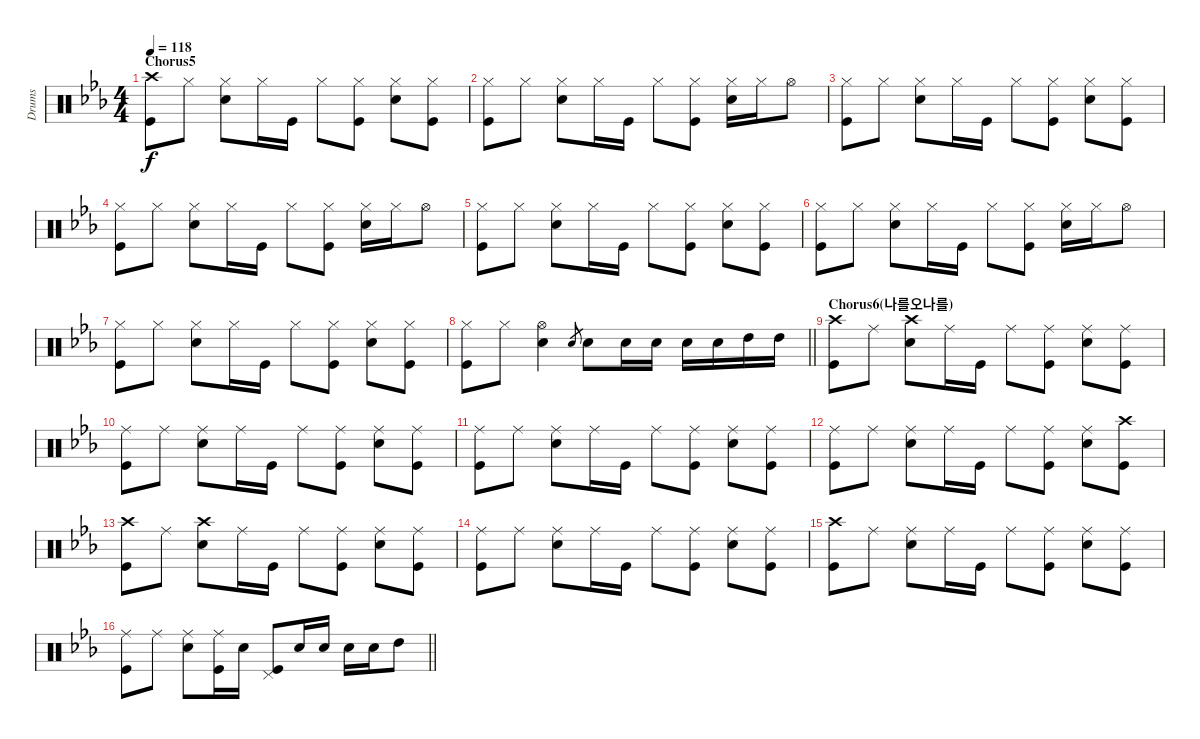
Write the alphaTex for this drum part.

\track ("Drums" "Drums") {instrument percussion}
\staff {score}
\articulation defaults
\ts (4 4)
\section ("" "Chorus5")
\tempo 118
\clef neutral
\ks cminor
("Crash high (hit)" "Kick (hit)").8{dy f} "Hi-Hat (closed)".8 ("Hi-Hat (closed)" "Snare (hit) 2").8 "Hi-Hat (closed)".16 "Kick (hit)".16 "Hi-Hat (closed)".8 ("Hi-Hat (closed)" "Kick (hit)").8 ("Hi-Hat (closed)" "Snare (hit) 2").8 ("Hi-Hat (closed)" "Kick (hit)").8 |
("Hi-Hat (closed)" "Kick (hit)").8 "Hi-Hat (closed)".8 ("Hi-Hat (closed)" "Snare (hit) 2").8 "Hi-Hat (closed)".16 "Kick (hit)".16 "Hi-Hat (closed)".8 ("Hi-Hat (closed)" "Kick (hit)").8 ("Hi-Hat (closed)" "Snare (hit) 2").16 "Hi-Hat (closed)".16 "Hi-Hat (open)".8 |
("Hi-Hat (closed)" "Kick (hit)").8 "Hi-Hat (closed)".8 ("Hi-Hat (closed)" "Snare (hit) 2").8 "Hi-Hat (closed)".16 "Kick (hit)".16 "Hi-Hat (closed)".8 ("Hi-Hat (closed)" "Kick (hit)").8 ("Hi-Hat (closed)" "Snare (hit) 2").8 ("Hi-Hat (closed)" "Kick (hit)").8 |
("Hi-Hat (closed)" "Kick (hit)").8 "Hi-Hat (closed)".8 ("Hi-Hat (closed)" "Snare (hit) 2").8 "Hi-Hat (closed)".16 "Kick (hit)".16 "Hi-Hat (closed)".8 ("Hi-Hat (closed)" "Kick (hit)").8 ("Hi-Hat (closed)" "Snare (hit) 2").16 "Hi-Hat (closed)".16 "Hi-Hat (open)".8 |
("Hi-Hat (closed)" "Kick (hit)").8 "Hi-Hat (closed)".8 ("Hi-Hat (closed)" "Snare (hit) 2").8 "Hi-Hat (closed)".16 "Kick (hit)".16 "Hi-Hat (closed)".8 ("Hi-Hat (closed)" "Kick (hit)").8 ("Hi-Hat (closed)" "Snare (hit) 2").8 ("Hi-Hat (closed)" "Kick (hit)").8 |
("Hi-Hat (closed)" "Kick (hit)").8 "Hi-Hat (closed)".8 ("Hi-Hat (closed)" "Snare (hit) 2").8 "Hi-Hat (closed)".16 "Kick (hit)".16 "Hi-Hat (closed)".8 ("Hi-Hat (closed)" "Kick (hit)").8 ("Hi-Hat (closed)" "Snare (hit) 2").16 "Hi-Hat (closed)".16 "Hi-Hat (open)".8 |
("Hi-Hat (closed)" "Kick (hit)").8 "Hi-Hat (closed)".8 ("Hi-Hat (closed)" "Snare (hit) 2").8 "Hi-Hat (closed)".16 "Kick (hit)".16 "Hi-Hat (closed)".8 ("Hi-Hat (closed)" "Kick (hit)").8 ("Hi-Hat (closed)" "Snare (hit) 2").8 ("Hi-Hat (closed)" "Kick (hit)").8 |
\barLineRight lightlight
("Hi-Hat (closed)" "Kick (hit)").8 "Hi-Hat (closed)".8 ("Hi-Hat (open)" "Snare (hit) 2").4 "Snare (hit) 2".8{gr} "Snare (hit) 2".8 "Snare (hit) 2".16 "Snare (hit) 2".16 "Snare (hit) 2".16 "Snare (hit) 2".16 "High Tom (hit)".16 "High Tom (hit)".16 |
\section ("" "Chorus6(나를오나를)")
("Crash high (hit)" "Kick (hit)").8 "Ride (middle)".8 ("Crash high (hit)" "Snare (hit) 2").8 "Ride (middle)".16 "Kick (hit)".16 "Ride (middle)".8 ("Ride (middle)" "Kick (hit)").8 ("Ride (middle)" "Snare (hit) 2").8 ("Ride (middle)" "Kick (hit)").8 |
("Ride (middle)" "Kick (hit)").8 "Ride (middle)".8 ("Ride (middle)" "Snare (hit) 2").8 "Ride (middle)".16 "Kick (hit)".16 "Ride (middle)".8 ("Ride (middle)" "Kick (hit)").8 ("Ride (middle)" "Snare (hit) 2").8 ("Ride (middle)" "Kick (hit)").8 |
("Ride (middle)" "Kick (hit)").8 "Ride (middle)".8 ("Ride (middle)" "Snare (hit) 2").8 "Ride (middle)".16 "Kick (hit)".16 "Ride (middle)".8 ("Ride (middle)" "Kick (hit)").8 ("Ride (middle)" "Snare (hit) 2").8 ("Ride (middle)" "Kick (hit)").8 |
("Ride (middle)" "Kick (hit)").8 "Ride (middle)".8 ("Ride (middle)" "Snare (hit) 2").8 "Ride (middle)".16 "Kick (hit)".16 "Ride (middle)".8 ("Ride (middle)" "Kick (hit)").8 ("Ride (middle)" "Snare (hit) 2").8 ("Crash high (hit)" "Kick (hit)").8 |
("Crash high (hit)" "Kick (hit)").8 "Ride (middle)".8 ("Crash high (hit)" "Snare (hit) 2").8 "Ride (middle)".16 "Kick (hit)".16 "Ride (middle)".8 ("Ride (middle)" "Kick (hit)").8 ("Ride (middle)" "Snare (hit) 2").8 ("Ride (middle)" "Kick (hit)").8 |
("Ride (middle)" "Kick (hit)").8 "Ride (middle)".8 ("Ride (middle)" "Snare (hit) 2").8 "Ride (middle)".16 "Kick (hit)".16 "Ride (middle)".8 ("Ride (middle)" "Kick (hit)").8 ("Ride (middle)" "Snare (hit) 2").8 ("Ride (middle)" "Kick (hit)").8 |
("Crash high (hit)" "Kick (hit)").8 "Ride (middle)".8 ("Ride (middle)" "Snare (hit) 2").8 "Ride (middle)".16 "Kick (hit)".16 "Ride (middle)".8 ("Ride (middle)" "Kick (hit)").8 ("Ride (middle)" "Snare (hit) 2").8 ("Ride (middle)" "Kick (hit)").8 |
\barLineRight lightlight
("Ride (middle)" "Kick (hit)").8 "Ride (middle)".8 ("Ride (middle)" "Snare (hit) 2").8 ("Ride (middle)" "Kick (hit)").16 "Snare (hit) 2".16 ("Kick (hit)" "Pedal Hi-Hat (hit)").8 "Snare (hit) 2".16 "Snare (hit) 2".16 "Snare (hit) 2".16 "Snare (hit) 2".16 "High Tom (hit)".8
